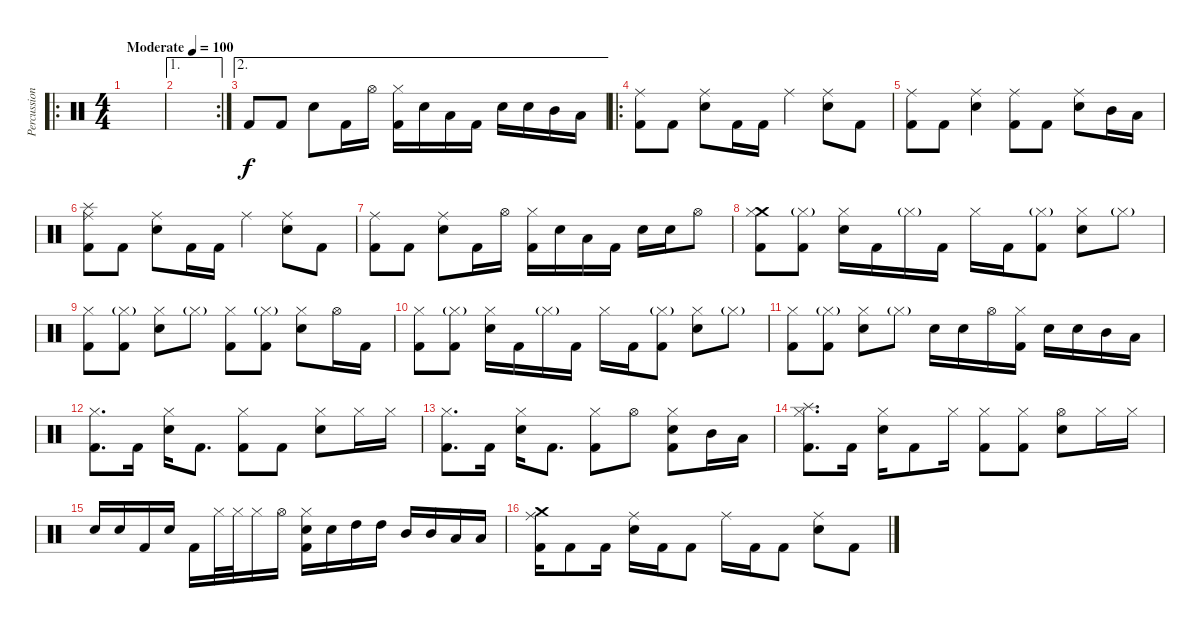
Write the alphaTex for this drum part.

\track ("Percussion" "Percussion") {instrument percussion}
\staff {score}
\articulation defaults
\ro
\ts (4 4)
\tempo (100 "Moderate")
\clef neutral
\ks c
|
\ae 1
\rc 2
|
\ae 2 "Kick (hit) 2".8 "Kick (hit) 2".8 "Snare (hit) 2".8 "Kick (hit) 2".16 "Hi-Hat (open)".16
("Hi-Hat (closed)" "Kick (hit) 2").16 "Snare (hit) 2".16 "Low Tom (hit)".16 "Kick (hit) 2".16 "Snare (hit) 2".16 "Snare (hit) 2".16 "Mid Tom (hit)".16 "Low Tom (hit)".16 |
\ro
("Ride (middle)" "Kick (hit) 2").8 "Kick (hit) 2".8 ("Ride (middle)" "Snare (hit) 2").8 "Kick (hit) 2".16 "Kick (hit) 2".16 "Ride (middle)".4 ("Ride (middle)" "Snare (hit) 2").8 "Kick (hit) 2".8 |
("Ride (middle)" "Kick (hit) 2").8 "Kick (hit) 2".8 ("Ride (middle)" "Snare (hit) 2").4 ("Ride (middle)" "Kick (hit) 2").8 "Kick (hit) 2".8 ("Ride (middle)" "Snare (hit) 2").8 "Mid Tom (hit)".16 "Low Tom (hit)".16 |
("Splash (hit)" "Ride (middle)" "Kick (hit) 2").8 "Kick (hit) 2".8 ("Ride (middle)" "Snare (hit) 2").8 "Kick (hit) 2".16 "Kick (hit) 2".16 "Ride (middle)".4 ("Ride (middle)" "Snare (hit) 2").8 "Kick (hit) 2".8 |
("Ride (middle)" "Kick (hit) 2").8 "Kick (hit) 2".8 ("Ride (middle)" "Snare (hit) 2").8 "Kick (hit) 2".16 "Hi-Hat (open)".16 ("Hi-Hat (closed)" "Kick (hit) 2").16 "Snare (hit) 2".16 "Low Tom (hit)".16 "Kick (hit) 2".16 "Snare (hit) 2".16 "Snare (hit) 2".16 "Hi-Hat (open)".8 |
("Crash medium (hit)" "Hi-Hat (closed)" "Kick (hit) 2").8 ("Hi-Hat (closed)"{g} "Kick (hit) 2").8 ("Hi-Hat (closed)" "Snare (hit) 2").16 "Kick (hit) 2".16 "Hi-Hat (closed)"{g}.16 "Kick (hit) 2".16 "Hi-Hat (closed)".16 "Kick (hit) 2".16 ("Hi-Hat (closed)"{g} "Kick (hit) 2").8 ("Hi-Hat (closed)" "Snare (hit) 2").8 "Hi-Hat (closed)"{g}.8 |
("Hi-Hat (closed)" "Kick (hit) 2").8 ("Hi-Hat (closed)"{g} "Kick (hit) 2").8 ("Hi-Hat (closed)" "Snare (hit) 2").8 "Hi-Hat (closed)"{g}.8 ("Hi-Hat (closed)" "Kick (hit) 2").8 ("Hi-Hat (closed)"{g} "Kick (hit) 2").8 ("Hi-Hat (closed)" "Snare (hit) 2").8 "Hi-Hat (open)".16 "Kick (hit) 2".16 |
("Hi-Hat (closed)" "Kick (hit) 2").8 ("Hi-Hat (closed)"{g} "Kick (hit) 2").8 ("Hi-Hat (closed)" "Snare (hit) 2").16 "Kick (hit) 2".16 "Hi-Hat (closed)"{g}.16 "Kick (hit) 2".16 "Hi-Hat (closed)".16 "Kick (hit) 2".16 ("Hi-Hat (closed)"{g} "Kick (hit) 2").8 ("Hi-Hat (closed)" "Snare (hit) 2").8 "Hi-Hat (closed)"{g}.8 |
("Hi-Hat (closed)" "Kick (hit) 2").8 ("Hi-Hat (closed)"{g} "Kick (hit) 2").8 ("Hi-Hat (closed)" "Snare (hit) 2").8 "Hi-Hat (closed)"{g}.8 "Snare (hit) 2".16 "Snare (hit) 2".16 "Hi-Hat (open)".16 ("Hi-Hat (closed)" "Kick (hit) 2").16 "Snare (hit) 2".16 "Snare (hit) 2".16 "Mid Tom (hit)".16 "Low Tom (hit)".16 |
("Hi-Hat (closed)" "Kick (hit) 2").8{d} "Kick (hit) 2".16 ("Hi-Hat (closed)" "Snare (hit) 2").16 "Kick (hit) 2".8{d} ("Hi-Hat (closed)" "Kick (hit) 2").8 "Kick (hit) 2".8 ("Hi-Hat (closed)" "Snare (hit) 2").8 "Hi-Hat (closed)".16 "Hi-Hat (closed)".16 |
("Hi-Hat (closed)" "Kick (hit) 2").8{d} "Kick (hit) 2".16 ("Hi-Hat (closed)" "Snare (hit) 2").16 "Kick (hit) 2".8{d} ("Hi-Hat (closed)" "Kick (hit) 2").8 "Hi-Hat (open)".8 ("Hi-Hat (closed)" "Snare (hit) 2" "Kick (hit) 2").8 "Mid Tom (hit)".16 "Low Tom (hit)".16 |
("Splash (hit)" "Hi-Hat (closed)" "Kick (hit) 2").8{d} "Kick (hit) 2".16 ("Hi-Hat (closed)" "Snare (hit) 2").16 "Kick (hit) 2".8 "Hi-Hat (closed)".16 ("Hi-Hat (closed)" "Kick (hit) 2").8 ("Hi-Hat (closed)" "Kick (hit) 2").8 ("Hi-Hat (open)" "Snare (hit) 2").8 "Hi-Hat (closed)".16 "Hi-Hat (closed)".16 |
"Snare (hit) 2".16 "Snare (hit) 2".16 "Kick (hit) 2".16 "Snare (hit) 2".16 "Kick (hit) 2".16 "Hi-Hat (closed)".32 "Hi-Hat (closed)".32 "Hi-Hat (closed)".16 "Hi-Hat (open)".16 ("Hi-Hat (closed)" "Snare (hit) 2" "Kick (hit) 2").16 "Snare (hit) 2".16 "High Tom (hit)".16 "High Tom (hit)".16 "Mid Tom (hit)".16 "Mid Tom (hit)".16 "Low Tom (hit)".16 "Low Tom (hit)".16 |
("Crash medium (hit)" "Ride (middle)" "Kick (hit) 2").16 "Kick (hit) 2".8 "Kick (hit) 2".16 ("Ride (middle)" "Snare (hit) 2").16 "Kick (hit) 2".16 "Kick (hit) 2".8 "Ride (middle)".16 "Kick (hit) 2".16 "Kick (hit) 2".8 ("Ride (middle)" "Snare (hit) 2").8 "Kick (hit) 2".8
